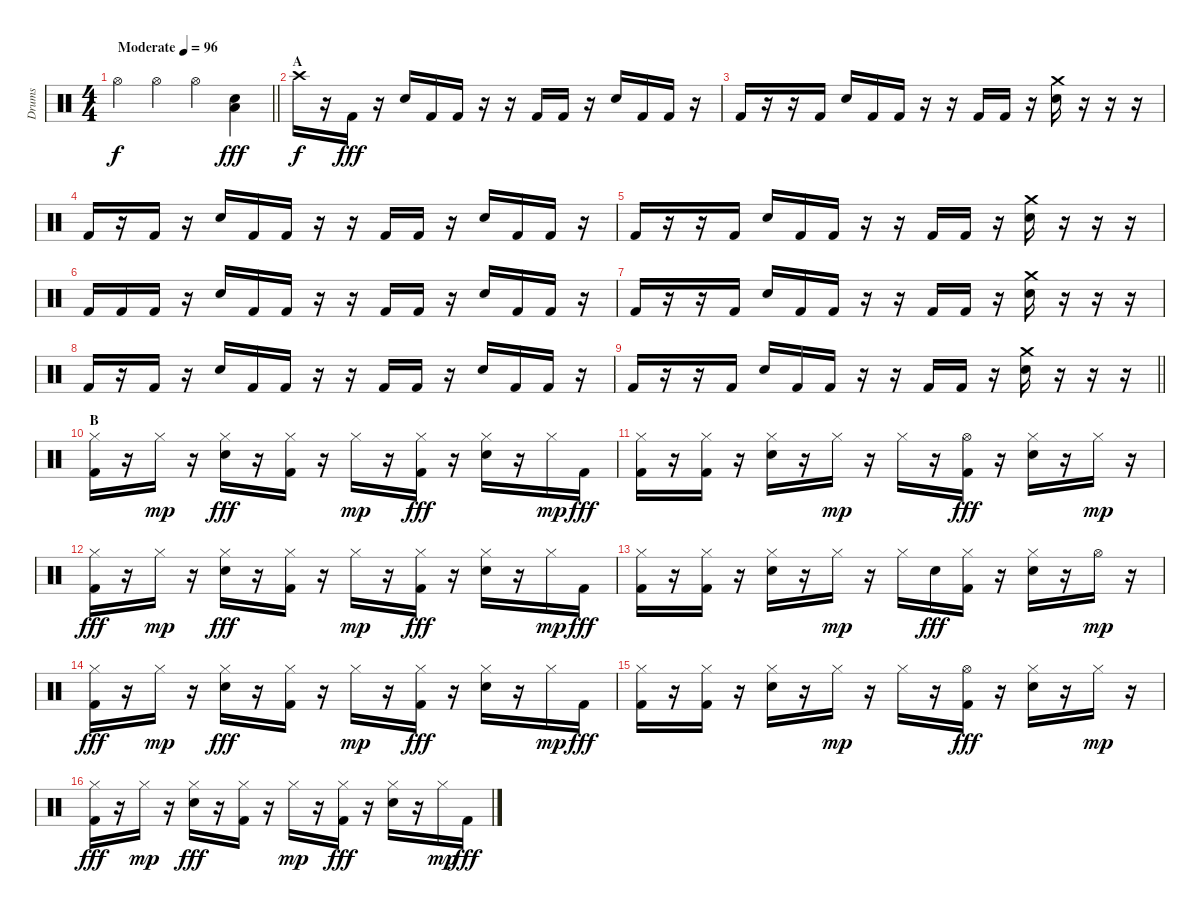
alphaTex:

\track ("Drums" "Drums") {instrument percussion}
\staff
\articulation defaults
\ts (4 4)
\tempo (96 "Moderate")
\clef neutral
\barLineRight lightlight
\ks c "Hi-Hat (open)".4{dy f} "Hi-Hat (open)".4 "Hi-Hat (open)".4
("Low Floor Tom (hit)" "Electric Snare (hit)").4{dy fff} |
\section ("" "A")
"Crash high (hit)".16{dy f} r.16 "Kick (hit) 2".16{dy fff} r.16 "Electric Snare (hit)".16 "Kick (hit) 2".16 "Kick (hit) 2".16 r.16 r.16 "Kick (hit) 2".16 "Kick (hit) 2".16 r.16 "Electric Snare (hit)".16 "Kick (hit) 2".16 "Kick (hit) 2".16 r.16 |
"Kick (hit) 2".16 r.16 r.16 "Kick (hit) 2".16 "Electric Snare (hit)".16 "Kick (hit) 2".16 "Kick (hit) 2".16 r.16 r.16 "Kick (hit) 2".16 "Kick (hit) 2".16 r.16 ("Crash medium (hit)" "Electric Snare (hit)").16 r.16 r.16 r.16 |
"Kick (hit) 2".16 r.16 "Kick (hit) 2".16 r.16 "Electric Snare (hit)".16 "Kick (hit) 2".16 "Kick (hit) 2".16 r.16 r.16 "Kick (hit) 2".16 "Kick (hit) 2".16 r.16 "Electric Snare (hit)".16 "Kick (hit) 2".16 "Kick (hit) 2".16 r.16 |
"Kick (hit) 2".16 r.16 r.16 "Kick (hit) 2".16 "Electric Snare (hit)".16 "Kick (hit) 2".16 "Kick (hit) 2".16 r.16 r.16 "Kick (hit) 2".16 "Kick (hit) 2".16 r.16 ("Crash medium (hit)" "Electric Snare (hit)").16 r.16 r.16 r.16 |
"Kick (hit) 2".16 "Kick (hit) 2".16 "Kick (hit) 2".16 r.16 "Electric Snare (hit)".16 "Kick (hit) 2".16 "Kick (hit) 2".16 r.16 r.16 "Kick (hit) 2".16 "Kick (hit) 2".16 r.16 "Electric Snare (hit)".16 "Kick (hit) 2".16 "Kick (hit) 2".16 r.16 |
"Kick (hit) 2".16 r.16 r.16 "Kick (hit) 2".16 "Electric Snare (hit)".16 "Kick (hit) 2".16 "Kick (hit) 2".16 r.16 r.16 "Kick (hit) 2".16 "Kick (hit) 2".16 r.16 ("Crash medium (hit)" "Electric Snare (hit)").16 r.16 r.16 r.16 |
"Kick (hit) 2".16 r.16 "Kick (hit) 2".16 r.16 "Electric Snare (hit)".16 "Kick (hit) 2".16 "Kick (hit) 2".16 r.16 r.16 "Kick (hit) 2".16 "Kick (hit) 2".16 r.16 "Electric Snare (hit)".16 "Kick (hit) 2".16 "Kick (hit) 2".16 r.16 |
\barLineRight lightlight "Kick (hit) 2".16
r.16 r.16 "Kick (hit) 2".16 "Electric Snare (hit)".16 "Kick (hit) 2".16 "Kick (hit) 2".16 r.16 r.16 "Kick (hit) 2".16 "Kick (hit) 2".16 r.16 ("Crash medium (hit)" "Electric Snare (hit)").16 r.16 r.16 r.16 |
\section ("" "B")
("Hi-Hat (closed)" "Kick (hit) 2").16 r.16 "Hi-Hat (closed)".16{dy mp} r.16 ("Hi-Hat (closed)" "Electric Snare (hit)").16{dy fff} r.16 ("Hi-Hat (closed)" "Kick (hit) 2").16 r.16 "Hi-Hat (closed)".16{dy mp} r.16 ("Hi-Hat (closed)" "Kick (hit) 2").16{dy fff} r.16 ("Hi-Hat (closed)" "Electric Snare (hit)").16 r.16 "Hi-Hat (closed)".16{dy mp} "Kick (hit) 2".16{dy fff} |
("Hi-Hat (closed)" "Kick (hit) 2").16 r.16 ("Hi-Hat (closed)" "Kick (hit) 2").16 r.16 ("Hi-Hat (closed)" "Electric Snare (hit)").16 r.16 "Hi-Hat (closed)".16{dy mp} r.16 "Hi-Hat (closed)".16 r.16 ("Hi-Hat (open)" "Kick (hit) 2").16{dy fff} r.16 ("Hi-Hat (closed)" "Electric Snare (hit)").16 r.16 "Hi-Hat (closed)".16{dy mp} r.16 |
("Hi-Hat (closed)" "Kick (hit) 2").16{dy fff} r.16 "Hi-Hat (closed)".16{dy mp} r.16 ("Hi-Hat (closed)" "Electric Snare (hit)").16{dy fff} r.16 ("Hi-Hat (closed)" "Kick (hit) 2").16 r.16 "Hi-Hat (closed)".16{dy mp} r.16 ("Hi-Hat (closed)" "Kick (hit) 2").16{dy fff} r.16 ("Hi-Hat (closed)" "Electric Snare (hit)").16 r.16 "Hi-Hat (closed)".16{dy mp} "Kick (hit) 2".16{dy fff} |
("Hi-Hat (closed)" "Kick (hit) 2").16 r.16 ("Hi-Hat (closed)" "Kick (hit) 2").16 r.16 ("Hi-Hat (closed)" "Electric Snare (hit)").16 r.16 "Hi-Hat (closed)".16{dy mp} r.16 "Hi-Hat (closed)".16 "Electric Snare (hit)".16{dy fff} ("Hi-Hat (closed)" "Kick (hit) 2").16 r.16 ("Hi-Hat (closed)" "Electric Snare (hit)").16 r.16 "Hi-Hat (open)".16{dy mp} r.16 |
("Hi-Hat (closed)" "Kick (hit) 2").16{dy fff} r.16 "Hi-Hat (closed)".16{dy mp} r.16 ("Hi-Hat (closed)" "Electric Snare (hit)").16{dy fff} r.16 ("Hi-Hat (closed)" "Kick (hit) 2").16 r.16 "Hi-Hat (closed)".16{dy mp} r.16 ("Hi-Hat (closed)" "Kick (hit) 2").16{dy fff} r.16 ("Hi-Hat (closed)" "Electric Snare (hit)").16 r.16 "Hi-Hat (closed)".16{dy mp} "Kick (hit) 2".16{dy fff} |
("Hi-Hat (closed)" "Kick (hit) 2").16 r.16 ("Hi-Hat (closed)" "Kick (hit) 2").16 r.16 ("Hi-Hat (closed)" "Electric Snare (hit)").16 r.16 "Hi-Hat (closed)".16{dy mp} r.16 "Hi-Hat (closed)".16 r.16 ("Hi-Hat (open)" "Kick (hit) 2").16{dy fff} r.16 ("Hi-Hat (closed)" "Electric Snare (hit)").16 r.16 "Hi-Hat (closed)".16{dy mp} r.16 |
("Hi-Hat (closed)" "Kick (hit) 2").16{dy fff} r.16 "Hi-Hat (closed)".16{dy mp} r.16 ("Hi-Hat (closed)" "Electric Snare (hit)").16{dy fff} r.16 ("Hi-Hat (closed)" "Kick (hit) 2").16 r.16 "Hi-Hat (closed)".16{dy mp} r.16 ("Hi-Hat (closed)" "Kick (hit) 2").16{dy fff} r.16 ("Hi-Hat (closed)" "Electric Snare (hit)").16 r.16 "Hi-Hat (closed)".16{dy mp} "Kick (hit) 2".16{dy fff}
